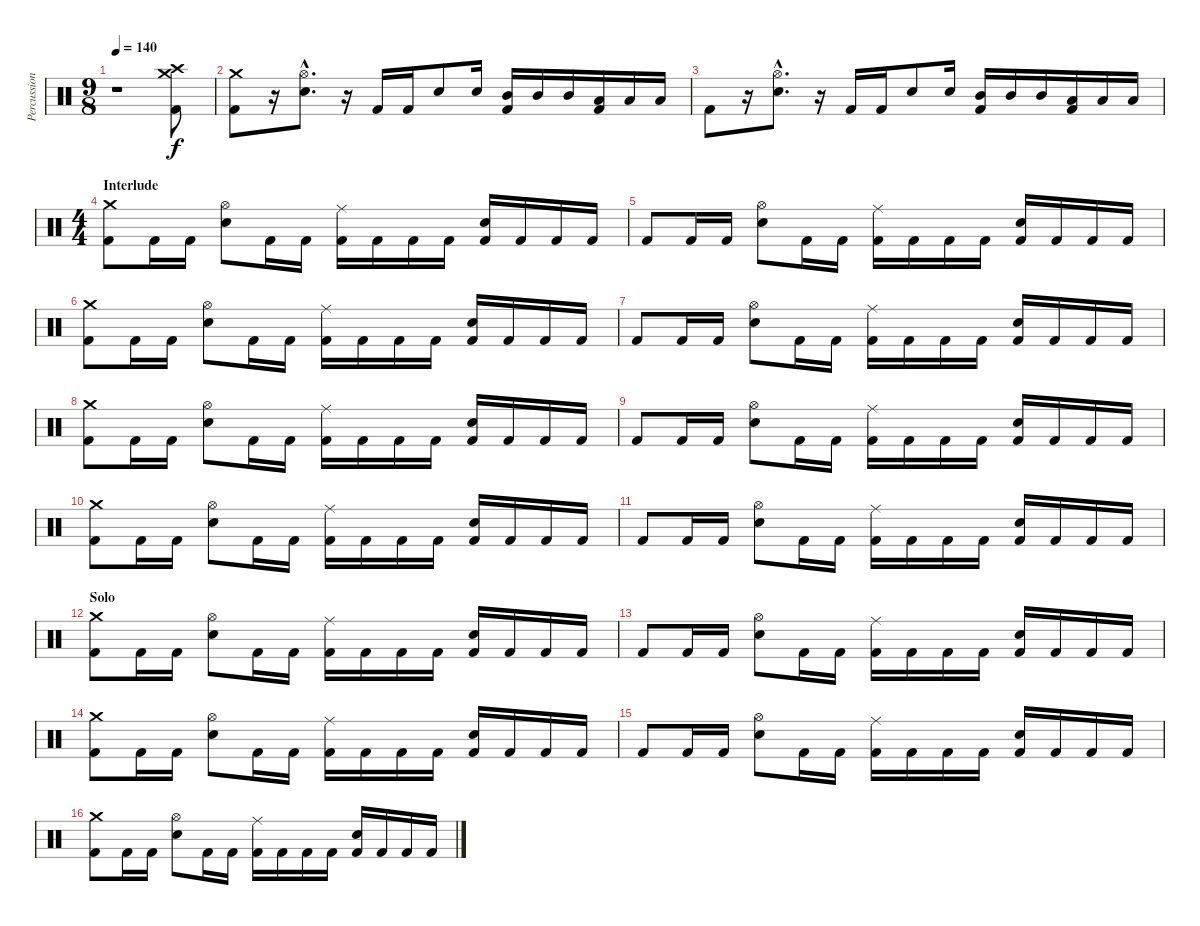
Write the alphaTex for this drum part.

\track ("Percussion" "Percussion") {instrument percussion}
\staff {score}
\articulation defaults
\ts (9 8)
\tempo 140
\clef neutral
\ks c
r.1{dy f} ("Crash medium (hit)" "Crash high (hit)" "Kick (hit) 2").8 |
("Crash medium (hit)" "Kick (hit) 2").8 r.16 ("Hi-Hat (open)"{hac} "Electric Snare (hit)"{hac}).8{d} r.16 "Kick (hit) 2".16 "Kick (hit) 2".16 "Electric Snare (hit)".8 "Electric Snare (hit)".16 ("Mid Tom (hit)" "Kick (hit) 2").16 "Mid Tom (hit)".16 "Mid Tom (hit)".16 ("Low Tom (hit)" "Kick (hit) 2").16 "Low Tom (hit)".16 "Low Tom (hit)".16 |
"Kick (hit) 2".8 r.16 ("Hi-Hat (open)"{hac} "Electric Snare (hit)"{hac}).8{d} r.16 "Kick (hit) 2".16 "Kick (hit) 2".16 "Electric Snare (hit)".8 "Electric Snare (hit)".16 ("Mid Tom (hit)" "Kick (hit) 2").16 "Mid Tom (hit)".16 "Mid Tom (hit)".16 ("Low Tom (hit)" "Kick (hit) 2").16 "Low Tom (hit)".16 "Low Tom (hit)".16 |
\ts (4 4)
\section ("" "Interlude")
("Crash medium (hit)" "Kick (hit) 2").8 "Kick (hit) 2".16 "Kick (hit) 2".16 ("Hi-Hat (open)" "Electric Snare (hit)").8 "Kick (hit) 2".16 "Kick (hit) 2".16 ("Ride (middle)" "Kick (hit) 2").16 "Kick (hit) 2".16 "Kick (hit) 2".16 "Kick (hit) 2".16 ("Electric Snare (hit)" "Kick (hit) 2").16 "Kick (hit) 2".16 "Kick (hit) 2".16 "Kick (hit) 2".16 |
"Kick (hit) 2".8 "Kick (hit) 2".16 "Kick (hit) 2".16 ("Hi-Hat (open)" "Electric Snare (hit)").8 "Kick (hit) 2".16 "Kick (hit) 2".16 ("Ride (middle)" "Kick (hit) 2").16 "Kick (hit) 2".16 "Kick (hit) 2".16 "Kick (hit) 2".16 ("Electric Snare (hit)" "Kick (hit) 2").16 "Kick (hit) 2".16 "Kick (hit) 2".16 "Kick (hit) 2".16 |
("Crash medium (hit)" "Kick (hit) 2").8 "Kick (hit) 2".16 "Kick (hit) 2".16 ("Hi-Hat (open)" "Electric Snare (hit)").8 "Kick (hit) 2".16 "Kick (hit) 2".16 ("Ride (middle)" "Kick (hit) 2").16 "Kick (hit) 2".16 "Kick (hit) 2".16 "Kick (hit) 2".16 ("Electric Snare (hit)" "Kick (hit) 2").16 "Kick (hit) 2".16 "Kick (hit) 2".16 "Kick (hit) 2".16 |
"Kick (hit) 2".8 "Kick (hit) 2".16 "Kick (hit) 2".16 ("Hi-Hat (open)" "Electric Snare (hit)").8 "Kick (hit) 2".16 "Kick (hit) 2".16 ("Ride (middle)" "Kick (hit) 2").16 "Kick (hit) 2".16 "Kick (hit) 2".16 "Kick (hit) 2".16 ("Electric Snare (hit)" "Kick (hit) 2").16 "Kick (hit) 2".16 "Kick (hit) 2".16 "Kick (hit) 2".16 |
("Crash medium (hit)" "Kick (hit) 2").8 "Kick (hit) 2".16 "Kick (hit) 2".16 ("Hi-Hat (open)" "Electric Snare (hit)").8 "Kick (hit) 2".16 "Kick (hit) 2".16 ("Ride (middle)" "Kick (hit) 2").16 "Kick (hit) 2".16 "Kick (hit) 2".16 "Kick (hit) 2".16 ("Electric Snare (hit)" "Kick (hit) 2").16 "Kick (hit) 2".16 "Kick (hit) 2".16 "Kick (hit) 2".16 |
"Kick (hit) 2".8 "Kick (hit) 2".16 "Kick (hit) 2".16 ("Hi-Hat (open)" "Electric Snare (hit)").8 "Kick (hit) 2".16 "Kick (hit) 2".16 ("Ride (middle)" "Kick (hit) 2").16 "Kick (hit) 2".16 "Kick (hit) 2".16 "Kick (hit) 2".16 ("Electric Snare (hit)" "Kick (hit) 2").16 "Kick (hit) 2".16 "Kick (hit) 2".16 "Kick (hit) 2".16 |
("Crash medium (hit)" "Kick (hit) 2").8 "Kick (hit) 2".16 "Kick (hit) 2".16 ("Hi-Hat (open)" "Electric Snare (hit)").8 "Kick (hit) 2".16 "Kick (hit) 2".16 ("Ride (middle)" "Kick (hit) 2").16 "Kick (hit) 2".16 "Kick (hit) 2".16 "Kick (hit) 2".16 ("Electric Snare (hit)" "Kick (hit) 2").16 "Kick (hit) 2".16 "Kick (hit) 2".16 "Kick (hit) 2".16 |
"Kick (hit) 2".8 "Kick (hit) 2".16 "Kick (hit) 2".16 ("Hi-Hat (open)" "Electric Snare (hit)").8 "Kick (hit) 2".16 "Kick (hit) 2".16 ("Ride (middle)" "Kick (hit) 2").16 "Kick (hit) 2".16 "Kick (hit) 2".16 "Kick (hit) 2".16 ("Electric Snare (hit)" "Kick (hit) 2").16 "Kick (hit) 2".16 "Kick (hit) 2".16 "Kick (hit) 2".16 |
\section ("" "Solo")
("Crash medium (hit)" "Kick (hit) 2").8 "Kick (hit) 2".16 "Kick (hit) 2".16 ("Hi-Hat (open)" "Electric Snare (hit)").8 "Kick (hit) 2".16 "Kick (hit) 2".16 ("Ride (middle)" "Kick (hit) 2").16 "Kick (hit) 2".16 "Kick (hit) 2".16 "Kick (hit) 2".16 ("Electric Snare (hit)" "Kick (hit) 2").16 "Kick (hit) 2".16 "Kick (hit) 2".16 "Kick (hit) 2".16 |
"Kick (hit) 2".8 "Kick (hit) 2".16 "Kick (hit) 2".16 ("Hi-Hat (open)" "Electric Snare (hit)").8 "Kick (hit) 2".16 "Kick (hit) 2".16 ("Ride (middle)" "Kick (hit) 2").16 "Kick (hit) 2".16 "Kick (hit) 2".16 "Kick (hit) 2".16 ("Electric Snare (hit)" "Kick (hit) 2").16 "Kick (hit) 2".16 "Kick (hit) 2".16 "Kick (hit) 2".16 |
("Crash medium (hit)" "Kick (hit) 2").8 "Kick (hit) 2".16 "Kick (hit) 2".16 ("Hi-Hat (open)" "Electric Snare (hit)").8 "Kick (hit) 2".16 "Kick (hit) 2".16 ("Ride (middle)" "Kick (hit) 2").16 "Kick (hit) 2".16 "Kick (hit) 2".16 "Kick (hit) 2".16 ("Electric Snare (hit)" "Kick (hit) 2").16 "Kick (hit) 2".16 "Kick (hit) 2".16 "Kick (hit) 2".16 |
"Kick (hit) 2".8 "Kick (hit) 2".16 "Kick (hit) 2".16 ("Hi-Hat (open)" "Electric Snare (hit)").8 "Kick (hit) 2".16 "Kick (hit) 2".16 ("Ride (middle)" "Kick (hit) 2").16 "Kick (hit) 2".16 "Kick (hit) 2".16 "Kick (hit) 2".16 ("Electric Snare (hit)" "Kick (hit) 2").16 "Kick (hit) 2".16 "Kick (hit) 2".16 "Kick (hit) 2".16 |
("Crash medium (hit)" "Kick (hit) 2").8 "Kick (hit) 2".16 "Kick (hit) 2".16 ("Hi-Hat (open)" "Electric Snare (hit)").8 "Kick (hit) 2".16 "Kick (hit) 2".16 ("Ride (middle)" "Kick (hit) 2").16 "Kick (hit) 2".16 "Kick (hit) 2".16 "Kick (hit) 2".16 ("Electric Snare (hit)" "Kick (hit) 2").16 "Kick (hit) 2".16 "Kick (hit) 2".16 "Kick (hit) 2".16
